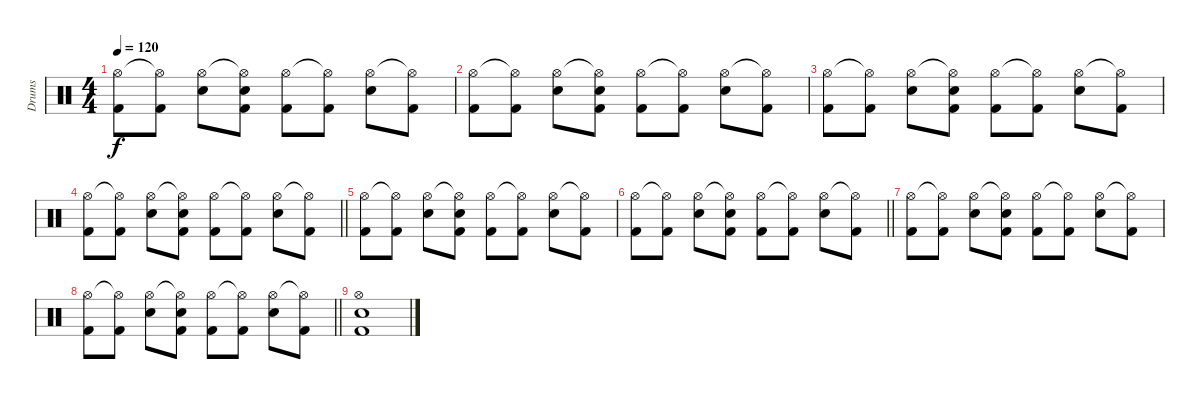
\track ("Drums" "Drums") {instrument percussion}
\staff {score}
\articulation defaults
\ts (4 4)
\tempo 120
\clef neutral
\ks c
("Hi-Hat (open)" "Kick (hit) 2").8{dy f} ("Hi-Hat (open)"{t} "Kick (hit) 2").8 ("Hi-Hat (open)" "Electric Snare (hit)").8 ("Hi-Hat (open)"{t} "Electric Snare (hit)" "Kick (hit) 2").8 ("Hi-Hat (open)" "Kick (hit) 2").8 ("Hi-Hat (open)"{t} "Kick (hit) 2").8 ("Hi-Hat (open)" "Electric Snare (hit)").8 ("Hi-Hat (open)"{t} "Kick (hit) 2").8 |
("Hi-Hat (open)" "Kick (hit) 2").8 ("Hi-Hat (open)"{t} "Kick (hit) 2").8 ("Hi-Hat (open)" "Electric Snare (hit)").8 ("Hi-Hat (open)"{t} "Electric Snare (hit)" "Kick (hit) 2").8 ("Hi-Hat (open)" "Kick (hit) 2").8 ("Hi-Hat (open)"{t} "Kick (hit) 2").8 ("Hi-Hat (open)" "Electric Snare (hit)").8 ("Hi-Hat (open)"{t} "Kick (hit) 2").8 |
("Hi-Hat (open)" "Kick (hit) 2").8 ("Hi-Hat (open)"{t} "Kick (hit) 2").8 ("Hi-Hat (open)" "Electric Snare (hit)").8 ("Hi-Hat (open)"{t} "Electric Snare (hit)" "Kick (hit) 2").8 ("Hi-Hat (open)" "Kick (hit) 2").8 ("Hi-Hat (open)"{t} "Kick (hit) 2").8 ("Hi-Hat (open)" "Electric Snare (hit)").8 ("Hi-Hat (open)"{t} "Kick (hit) 2").8 |
\barLineRight lightlight
("Hi-Hat (open)" "Kick (hit) 2").8 ("Hi-Hat (open)"{t} "Kick (hit) 2").8 ("Hi-Hat (open)" "Electric Snare (hit)").8 ("Hi-Hat (open)"{t} "Electric Snare (hit)" "Kick (hit) 2").8 ("Hi-Hat (open)" "Kick (hit) 2").8 ("Hi-Hat (open)"{t} "Kick (hit) 2").8 ("Hi-Hat (open)" "Electric Snare (hit)").8 ("Hi-Hat (open)"{t} "Kick (hit) 2").8 |
("Hi-Hat (open)" "Kick (hit) 2").8 ("Hi-Hat (open)"{t} "Kick (hit) 2").8 ("Hi-Hat (open)" "Electric Snare (hit)").8 ("Hi-Hat (open)"{t} "Electric Snare (hit)" "Kick (hit) 2").8 ("Hi-Hat (open)" "Kick (hit) 2").8 ("Hi-Hat (open)"{t} "Kick (hit) 2").8 ("Hi-Hat (open)" "Electric Snare (hit)").8 ("Hi-Hat (open)"{t} "Kick (hit) 2").8 |
\barLineRight lightlight
("Hi-Hat (open)" "Kick (hit) 2").8 ("Hi-Hat (open)"{t} "Kick (hit) 2").8 ("Hi-Hat (open)" "Electric Snare (hit)").8 ("Hi-Hat (open)"{t} "Electric Snare (hit)" "Kick (hit) 2").8 ("Hi-Hat (open)" "Kick (hit) 2").8 ("Hi-Hat (open)"{t} "Kick (hit) 2").8 ("Hi-Hat (open)" "Electric Snare (hit)").8 ("Hi-Hat (open)"{t} "Kick (hit) 2").8 |
("Hi-Hat (open)" "Kick (hit) 2").8 ("Hi-Hat (open)"{t} "Kick (hit) 2").8 ("Hi-Hat (open)" "Electric Snare (hit)").8 ("Hi-Hat (open)"{t} "Electric Snare (hit)" "Kick (hit) 2").8 ("Hi-Hat (open)" "Kick (hit) 2").8 ("Hi-Hat (open)"{t} "Kick (hit) 2").8 ("Hi-Hat (open)" "Electric Snare (hit)").8 ("Hi-Hat (open)"{t} "Kick (hit) 2").8 |
\barLineRight lightlight
("Hi-Hat (open)" "Kick (hit) 2").8 ("Hi-Hat (open)"{t} "Kick (hit) 2").8 ("Hi-Hat (open)" "Electric Snare (hit)").8 ("Hi-Hat (open)"{t} "Electric Snare (hit)" "Kick (hit) 2").8 ("Hi-Hat (open)" "Kick (hit) 2").8 ("Hi-Hat (open)"{t} "Kick (hit) 2").8 ("Hi-Hat (open)" "Electric Snare (hit)").8 ("Hi-Hat (open)"{t} "Kick (hit) 2").8 |
("Kick (hit) 2" "Electric Snare (hit)" "Hi-Hat (open)").1
